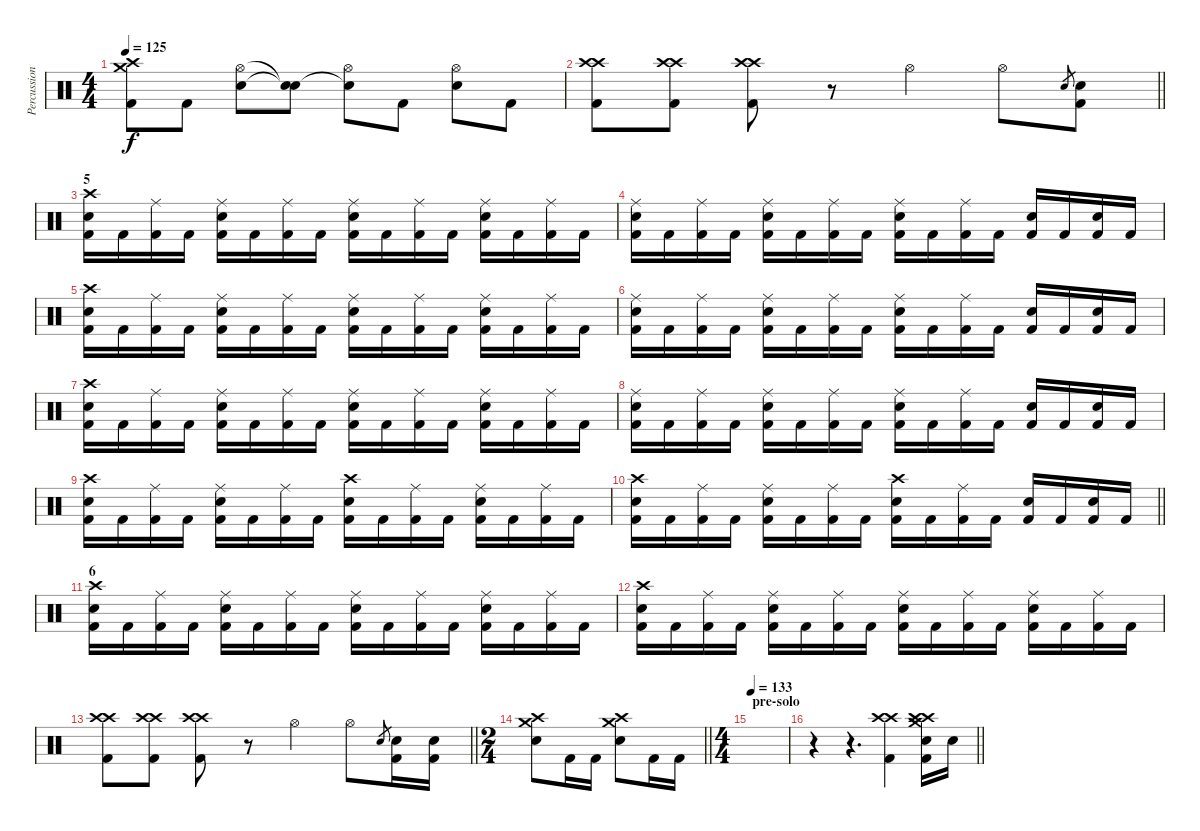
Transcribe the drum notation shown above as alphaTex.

\track ("Percussion" "Percussion") {instrument percussion}
\staff {score}
\articulation defaults
\ts (4 4)
\tempo 125
\clef neutral
\ks c
("Crash medium (hit)" "Crash high (hit)" "Kick (hit) 2").8{dy f} "Kick (hit) 2".8 ("Hi-Hat (open)" "Snare (hit) 2").8 ("Snare (hit)"{t} "Snare (hit)"{t}).8 ("Hi-Hat (open)" "Snare (hit)"{t}).8 "Kick (hit) 2".8 ("Hi-Hat (open)" "Snare (hit) 2").8 "Kick (hit) 2".8 |
\barLineRight lightlight
("Crash high (hit)" "Crash high (hit)" "Kick (hit) 2").8 ("Crash high (hit)" "Crash high (hit)" "Kick (hit) 2").8 ("Crash high (hit)" "Crash high (hit)" "Kick (hit) 2").8 r.8 "Hi-Hat (open)".4 "Hi-Hat (open)".8 "Snare (hit) 2".8{gr} ("Snare (hit) 2" "Kick (hit) 2").8 |
\section ("" "5")
("Crash high (hit)" "Snare (hit) 2" "Kick (hit) 2").16 "Kick (hit) 2".16 ("Ride (middle)" "Kick (hit) 2").16 "Kick (hit) 2".16 ("Ride (middle)" "Snare (hit) 2" "Kick (hit) 2").16 "Kick (hit) 2".16 ("Ride (middle)" "Kick (hit) 2").16 "Kick (hit) 2".16 ("Ride (middle)" "Snare (hit) 2" "Kick (hit) 2").16 "Kick (hit) 2".16 ("Ride (middle)" "Kick (hit) 2").16 "Kick (hit) 2".16 ("Ride (middle)" "Snare (hit) 2" "Kick (hit) 2").16 "Kick (hit) 2".16 ("Ride (middle)" "Kick (hit) 2").16 "Kick (hit) 2".16 |
("Ride (middle)" "Snare (hit) 2" "Kick (hit) 2").16 "Kick (hit) 2".16 ("Ride (middle)" "Kick (hit) 2").16 "Kick (hit) 2".16 ("Ride (middle)" "Snare (hit) 2" "Kick (hit) 2").16 "Kick (hit) 2".16 ("Ride (middle)" "Kick (hit) 2").16 "Kick (hit) 2".16 ("Ride (middle)" "Snare (hit) 2" "Kick (hit) 2").16 "Kick (hit) 2".16 ("Ride (middle)" "Kick (hit) 2").16 "Kick (hit) 2".16 ("Snare (hit) 2" "Kick (hit) 2").16 "Kick (hit) 2".16 ("Snare (hit) 2" "Kick (hit) 2").16 "Kick (hit) 2".16 |
("Crash high (hit)" "Snare (hit) 2" "Kick (hit) 2").16 "Kick (hit) 2".16 ("Ride (middle)" "Kick (hit) 2").16 "Kick (hit) 2".16 ("Ride (middle)" "Snare (hit) 2" "Kick (hit) 2").16 "Kick (hit) 2".16 ("Ride (middle)" "Kick (hit) 2").16 "Kick (hit) 2".16 ("Ride (middle)" "Snare (hit) 2" "Kick (hit) 2").16 "Kick (hit) 2".16 ("Ride (middle)" "Kick (hit) 2").16 "Kick (hit) 2".16 ("Ride (middle)" "Snare (hit) 2" "Kick (hit) 2").16 "Kick (hit) 2".16 ("Ride (middle)" "Kick (hit) 2").16 "Kick (hit) 2".16 |
("Ride (middle)" "Snare (hit) 2" "Kick (hit) 2").16 "Kick (hit) 2".16 ("Ride (middle)" "Kick (hit) 2").16 "Kick (hit) 2".16 ("Ride (middle)" "Snare (hit) 2" "Kick (hit) 2").16 "Kick (hit) 2".16 ("Ride (middle)" "Kick (hit) 2").16 "Kick (hit) 2".16 ("Ride (middle)" "Snare (hit) 2" "Kick (hit) 2").16 "Kick (hit) 2".16 ("Ride (middle)" "Kick (hit) 2").16 "Kick (hit) 2".16 ("Snare (hit) 2" "Kick (hit) 2").16 "Kick (hit) 2".16 ("Snare (hit) 2" "Kick (hit) 2").16 "Kick (hit) 2".16 |
("Crash high (hit)" "Snare (hit) 2" "Kick (hit) 2").16 "Kick (hit) 2".16 ("Ride (middle)" "Kick (hit) 2").16 "Kick (hit) 2".16 ("Ride (middle)" "Snare (hit) 2" "Kick (hit) 2").16 "Kick (hit) 2".16 ("Ride (middle)" "Kick (hit) 2").16 "Kick (hit) 2".16 ("Ride (middle)" "Snare (hit) 2" "Kick (hit) 2").16 "Kick (hit) 2".16 ("Ride (middle)" "Kick (hit) 2").16 "Kick (hit) 2".16 ("Ride (middle)" "Snare (hit) 2" "Kick (hit) 2").16 "Kick (hit) 2".16 ("Ride (middle)" "Kick (hit) 2").16 "Kick (hit) 2".16 |
("Ride (middle)" "Snare (hit) 2" "Kick (hit) 2").16 "Kick (hit) 2".16 ("Ride (middle)" "Kick (hit) 2").16 "Kick (hit) 2".16 ("Ride (middle)" "Snare (hit) 2" "Kick (hit) 2").16 "Kick (hit) 2".16 ("Ride (middle)" "Kick (hit) 2").16 "Kick (hit) 2".16 ("Ride (middle)" "Snare (hit) 2" "Kick (hit) 2").16 "Kick (hit) 2".16 ("Ride (middle)" "Kick (hit) 2").16 "Kick (hit) 2".16 ("Snare (hit) 2" "Kick (hit) 2").16 "Kick (hit) 2".16 ("Snare (hit) 2" "Kick (hit) 2").16 "Kick (hit) 2".16 |
("Crash high (hit)" "Snare (hit) 2" "Kick (hit) 2").16 "Kick (hit) 2".16 ("Ride (middle)" "Kick (hit) 2").16 "Kick (hit) 2".16 ("Ride (middle)" "Snare (hit) 2" "Kick (hit) 2").16 "Kick (hit) 2".16 ("Ride (middle)" "Kick (hit) 2").16 "Kick (hit) 2".16 ("Crash high (hit)" "Snare (hit) 2" "Kick (hit) 2").16 "Kick (hit) 2".16 ("Ride (middle)" "Kick (hit) 2").16 "Kick (hit) 2".16 ("Ride (middle)" "Snare (hit) 2" "Kick (hit) 2").16 "Kick (hit) 2".16 ("Ride (middle)" "Kick (hit) 2").16 "Kick (hit) 2".16 |
\barLineRight lightlight
("Crash high (hit)" "Snare (hit) 2" "Kick (hit) 2").16 "Kick (hit) 2".16 ("Ride (middle)" "Kick (hit) 2").16 "Kick (hit) 2".16 ("Ride (middle)" "Snare (hit) 2" "Kick (hit) 2").16 "Kick (hit) 2".16 ("Ride (middle)" "Kick (hit) 2").16 "Kick (hit) 2".16 ("Crash high (hit)" "Snare (hit) 2" "Kick (hit) 2").16 "Kick (hit) 2".16 ("Ride (middle)" "Kick (hit) 2").16 "Kick (hit) 2".16 ("Snare (hit) 2" "Kick (hit) 2").16 "Kick (hit) 2".16 ("Snare (hit) 2" "Kick (hit) 2").16 "Kick (hit) 2".16 |
\section ("" "6")
("Crash high (hit)" "Snare (hit) 2" "Kick (hit) 2").16 "Kick (hit) 2".16 ("Ride (middle)" "Kick (hit) 2").16 "Kick (hit) 2".16 ("Ride (middle)" "Snare (hit) 2" "Kick (hit) 2").16 "Kick (hit) 2".16 ("Ride (middle)" "Kick (hit) 2").16 "Kick (hit) 2".16 ("Ride (middle)" "Snare (hit) 2" "Kick (hit) 2").16 "Kick (hit) 2".16 ("Ride (middle)" "Kick (hit) 2").16 "Kick (hit) 2".16 ("Ride (middle)" "Snare (hit) 2" "Kick (hit) 2").16 "Kick (hit) 2".16 ("Ride (middle)" "Kick (hit) 2").16 "Kick (hit) 2".16 |
("Crash high (hit)" "Snare (hit) 2" "Kick (hit) 2").16 "Kick (hit) 2".16 ("Ride (middle)" "Kick (hit) 2").16 "Kick (hit) 2".16 ("Ride (middle)" "Snare (hit) 2" "Kick (hit) 2").16 "Kick (hit) 2".16 ("Ride (middle)" "Kick (hit) 2").16 "Kick (hit) 2".16 ("Ride (middle)" "Snare (hit) 2" "Kick (hit) 2").16 "Kick (hit) 2".16 ("Ride (middle)" "Kick (hit) 2").16 "Kick (hit) 2".16 ("Ride (middle)" "Snare (hit) 2" "Kick (hit) 2").16 "Kick (hit) 2".16 ("Ride (middle)" "Kick (hit) 2").16 "Kick (hit) 2".16 |
\barLineRight lightlight
("Crash high (hit)" "Crash high (hit)" "Kick (hit) 2").8 ("Crash high (hit)" "Crash high (hit)" "Kick (hit) 2").8 ("Crash high (hit)" "Crash high (hit)" "Kick (hit) 2").8 r.8 "Hi-Hat (open)".4 "Hi-Hat (open)".8 "Snare (hit) 2".8{gr} ("Snare (hit) 2" "Kick (hit) 2").16 ("Snare (hit) 2" "Kick (hit) 2").16 |
\ts (2 4)
\barLineRight lightlight
("Crash medium (hit)" "Crash high (hit)" "Snare (hit) 2").8 "Kick (hit) 2".16 "Kick (hit) 2".16 ("Crash high (hit)" "Crash medium (hit)" "Snare (hit) 2").8 "Kick (hit) 2".16 "Kick (hit) 2".16 |
\ts (4 4)
\section ("" "pre-solo")
\tempo 133
|
\barLineRight lightlight
r.4 r.4{d} ("Crash high (hit)" "Crash high (hit)" "Kick (hit) 2").4 ("Crash high (hit)" "Crash medium (hit)" "Crash high (hit)" "Snare (hit) 2" "Kick (hit) 2").16 "Snare (hit) 2".16
